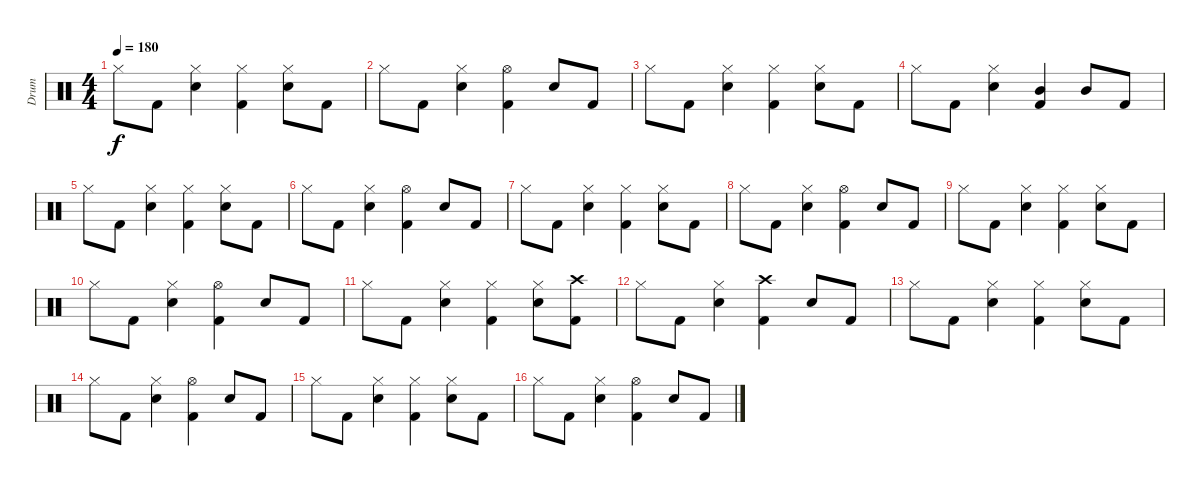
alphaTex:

\track ("Drum" "Drum") {instrument percussion}
\staff {score}
\articulation defaults
\ts (4 4)
\tempo 180
\clef neutral
\ks c "Hi-Hat (closed)".8{dy f} "Kick (hit) 2".8
("Hi-Hat (closed)" "Snare (hit) 2").4 ("Hi-Hat (closed)" "Kick (hit) 2").4 ("Hi-Hat (closed)" "Snare (hit) 2").8 "Kick (hit) 2".8 |
"Hi-Hat (closed)".8 "Kick (hit) 2".8 ("Hi-Hat (closed)" "Snare (hit) 2").4 ("Hi-Hat (open)" "Kick (hit) 2").4 "Snare (hit) 2".8 "Kick (hit) 2".8 |
"Hi-Hat (closed)".8 "Kick (hit) 2".8 ("Hi-Hat (closed)" "Snare (hit) 2").4 ("Hi-Hat (closed)" "Kick (hit) 2").4 ("Hi-Hat (closed)" "Snare (hit) 2").8 "Kick (hit) 2".8 |
"Hi-Hat (closed)".8 "Kick (hit) 2".8 ("Hi-Hat (closed)" "Snare (hit) 2").4 ("Mid Tom (hit)" "Kick (hit) 2").4 "Mid Tom (hit)".8 "Kick (hit) 2".8 |
"Hi-Hat (closed)".8 "Kick (hit) 2".8 ("Hi-Hat (closed)" "Snare (hit) 2").4 ("Hi-Hat (closed)" "Kick (hit) 2").4 ("Hi-Hat (closed)" "Snare (hit) 2").8 "Kick (hit) 2".8 |
"Hi-Hat (closed)".8 "Kick (hit) 2".8 ("Hi-Hat (closed)" "Snare (hit) 2").4 ("Hi-Hat (open)" "Kick (hit) 2").4 "Snare (hit) 2".8 "Kick (hit) 2".8 |
"Hi-Hat (closed)".8 "Kick (hit) 2".8 ("Hi-Hat (closed)" "Snare (hit) 2").4 ("Hi-Hat (closed)" "Kick (hit) 2").4 ("Hi-Hat (closed)" "Snare (hit) 2").8 "Kick (hit) 2".8 |
"Hi-Hat (closed)".8 "Kick (hit) 2".8 ("Hi-Hat (closed)" "Snare (hit) 2").4 ("Hi-Hat (open)" "Kick (hit) 2").4 "Snare (hit) 2".8 "Kick (hit) 2".8 |
"Hi-Hat (closed)".8 "Kick (hit) 2".8 ("Hi-Hat (closed)" "Snare (hit) 2").4 ("Hi-Hat (closed)" "Kick (hit) 2").4 ("Hi-Hat (closed)" "Snare (hit) 2").8 "Kick (hit) 2".8 |
"Hi-Hat (closed)".8 "Kick (hit) 2".8 ("Hi-Hat (closed)" "Snare (hit) 2").4 ("Hi-Hat (open)" "Kick (hit) 2").4 "Snare (hit) 2".8 "Kick (hit) 2".8 |
"Hi-Hat (closed)".8 "Kick (hit) 2".8 ("Hi-Hat (closed)" "Snare (hit) 2").4 ("Hi-Hat (closed)" "Kick (hit) 2").4 ("Hi-Hat (closed)" "Snare (hit) 2").8 ("Crash high (hit)" "Kick (hit) 2").8 |
"Hi-Hat (closed)".8 "Kick (hit) 2".8 ("Hi-Hat (closed)" "Snare (hit) 2").4 ("Crash high (hit)" "Kick (hit) 2").4 "Snare (hit) 2".8 "Kick (hit) 2".8 |
"Hi-Hat (closed)".8 "Kick (hit) 2".8 ("Hi-Hat (closed)" "Snare (hit) 2").4 ("Hi-Hat (closed)" "Kick (hit) 2").4 ("Hi-Hat (closed)" "Snare (hit) 2").8 "Kick (hit) 2".8 |
"Hi-Hat (closed)".8 "Kick (hit) 2".8 ("Hi-Hat (closed)" "Snare (hit) 2").4 ("Hi-Hat (open)" "Kick (hit) 2").4 "Snare (hit) 2".8 "Kick (hit) 2".8 |
"Hi-Hat (closed)".8 "Kick (hit) 2".8 ("Hi-Hat (closed)" "Snare (hit) 2").4 ("Hi-Hat (closed)" "Kick (hit) 2").4 ("Hi-Hat (closed)" "Snare (hit) 2").8 "Kick (hit) 2".8 |
"Hi-Hat (closed)".8 "Kick (hit) 2".8 ("Hi-Hat (closed)" "Snare (hit) 2").4 ("Hi-Hat (open)" "Kick (hit) 2").4 "Snare (hit) 2".8 "Kick (hit) 2".8
